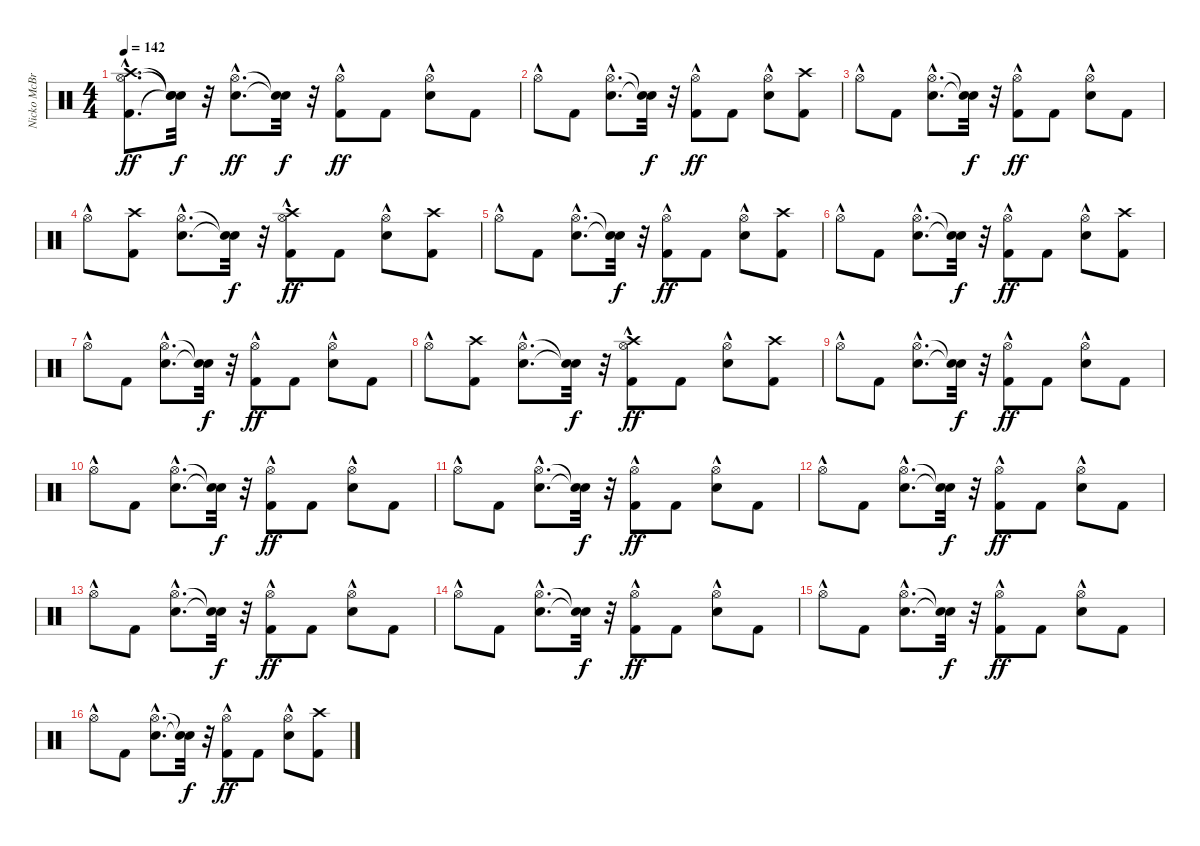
\track ("Nicko McBrain" "Nicko McBr") {instrument percussion}
\staff {score}
\articulation defaults
\ts (4 4)
\tempo 142
\clef neutral
\ks c
("Kick (hit) 2"{hac} "Hi-Hat (open)"{hac} "Crash high (hit)"{hac}).8{d dy ff} ("Snare (hit)"{t} "Snare (hit)"{t} "Snare (hit)"{t}).32{dy f} r.32 ("Snare (hit) 2"{hac} "Hi-Hat (open)"{hac}).8{d dy ff} ("Snare (hit)"{t} "Snare (hit)"{t}).32{dy f} r.32 ("Kick (hit) 2" "Hi-Hat (open)"{hac}).8{dy ff} "Kick (hit) 2".8 ("Snare (hit) 2" "Hi-Hat (open)"{hac}).8 "Kick (hit) 2".8 |
"Hi-Hat (open)"{hac}.8 "Kick (hit) 2".8 ("Snare (hit) 2"{hac} "Hi-Hat (open)"{hac}).8{d} ("Snare (hit)"{t} "Snare (hit)"{t}).32{dy f} r.32 ("Kick (hit) 2" "Hi-Hat (open)"{hac}).8{dy ff} "Kick (hit) 2".8 ("Snare (hit) 2" "Hi-Hat (open)"{hac}).8 ("Kick (hit) 2" "Crash high (hit)").8 |
"Hi-Hat (open)"{hac}.8 "Kick (hit) 2".8 ("Snare (hit) 2"{hac} "Hi-Hat (open)"{hac}).8{d} ("Snare (hit)"{t} "Snare (hit)"{t}).32{dy f} r.32 ("Kick (hit) 2" "Hi-Hat (open)"{hac}).8{dy ff} "Kick (hit) 2".8 ("Snare (hit) 2" "Hi-Hat (open)"{hac}).8 "Kick (hit) 2".8 |
"Hi-Hat (open)"{hac}.8 ("Kick (hit) 2" "Crash high (hit)").8 ("Snare (hit) 2"{hac} "Hi-Hat (open)"{hac}).8{d} ("Snare (hit)"{t} "Snare (hit)"{t}).32{dy f} r.32 ("Kick (hit) 2" "Hi-Hat (open)"{hac} "Crash high (hit)"{hac}).8{dy ff} "Kick (hit) 2".8 ("Snare (hit) 2" "Hi-Hat (open)"{hac}).8 ("Kick (hit) 2" "Crash high (hit)").8 |
"Hi-Hat (open)"{hac}.8 "Kick (hit) 2".8 ("Snare (hit) 2"{hac} "Hi-Hat (open)"{hac}).8{d} ("Snare (hit)"{t} "Snare (hit)"{t}).32{dy f} r.32 ("Kick (hit) 2" "Hi-Hat (open)"{hac}).8{dy ff} "Kick (hit) 2".8 ("Snare (hit) 2" "Hi-Hat (open)"{hac}).8 ("Kick (hit) 2" "Crash high (hit)").8 |
"Hi-Hat (open)"{hac}.8 "Kick (hit) 2".8 ("Snare (hit) 2"{hac} "Hi-Hat (open)"{hac}).8{d} ("Snare (hit)"{t} "Snare (hit)"{t}).32{dy f} r.32 ("Kick (hit) 2" "Hi-Hat (open)"{hac}).8{dy ff} "Kick (hit) 2".8 ("Snare (hit) 2" "Hi-Hat (open)"{hac}).8 ("Kick (hit) 2" "Crash high (hit)").8 |
"Hi-Hat (open)"{hac}.8 "Kick (hit) 2".8 ("Snare (hit) 2"{hac} "Hi-Hat (open)"{hac}).8{d} ("Snare (hit)"{t} "Snare (hit)"{t}).32{dy f} r.32 ("Kick (hit) 2" "Hi-Hat (open)"{hac}).8{dy ff} "Kick (hit) 2".8 ("Snare (hit) 2" "Hi-Hat (open)"{hac}).8 "Kick (hit) 2".8 |
"Hi-Hat (open)"{hac}.8 ("Kick (hit) 2" "Crash high (hit)").8 ("Snare (hit) 2"{hac} "Hi-Hat (open)"{hac}).8{d} ("Snare (hit)"{t} "Snare (hit)"{t}).32{dy f} r.32 ("Kick (hit) 2" "Hi-Hat (open)"{hac} "Crash high (hit)"{hac}).8{dy ff} "Kick (hit) 2".8 ("Snare (hit) 2" "Hi-Hat (open)"{hac}).8 ("Kick (hit) 2" "Crash high (hit)").8 |
"Hi-Hat (open)"{hac}.8 "Kick (hit) 2".8 ("Snare (hit) 2"{hac} "Hi-Hat (open)"{hac}).8{d} ("Snare (hit)"{t} "Snare (hit)"{t}).32{dy f} r.32 ("Kick (hit) 2" "Hi-Hat (open)"{hac}).8{dy ff} "Kick (hit) 2".8 ("Snare (hit) 2" "Hi-Hat (open)"{hac}).8 "Kick (hit) 2".8 |
"Hi-Hat (open)"{hac}.8 "Kick (hit) 2".8 ("Snare (hit) 2"{hac} "Hi-Hat (open)"{hac}).8{d} ("Snare (hit)"{t} "Snare (hit)"{t}).32{dy f} r.32 ("Kick (hit) 2" "Hi-Hat (open)"{hac}).8{dy ff} "Kick (hit) 2".8 ("Snare (hit) 2" "Hi-Hat (open)"{hac}).8 "Kick (hit) 2".8 |
"Hi-Hat (open)"{hac}.8 "Kick (hit) 2".8 ("Snare (hit) 2"{hac} "Hi-Hat (open)"{hac}).8{d} ("Snare (hit)"{t} "Snare (hit)"{t}).32{dy f} r.32 ("Kick (hit) 2" "Hi-Hat (open)"{hac}).8{dy ff} "Kick (hit) 2".8 ("Snare (hit) 2" "Hi-Hat (open)"{hac}).8 "Kick (hit) 2".8 |
"Hi-Hat (open)"{hac}.8 "Kick (hit) 2".8 ("Snare (hit) 2"{hac} "Hi-Hat (open)"{hac}).8{d} ("Snare (hit)"{t} "Snare (hit)"{t}).32{dy f} r.32 ("Kick (hit) 2" "Hi-Hat (open)"{hac}).8{dy ff} "Kick (hit) 2".8 ("Snare (hit) 2" "Hi-Hat (open)"{hac}).8 "Kick (hit) 2".8 |
"Hi-Hat (open)"{hac}.8 "Kick (hit) 2".8 ("Snare (hit) 2"{hac} "Hi-Hat (open)"{hac}).8{d} ("Snare (hit)"{t} "Snare (hit)"{t}).32{dy f} r.32 ("Kick (hit) 2" "Hi-Hat (open)"{hac}).8{dy ff} "Kick (hit) 2".8 ("Snare (hit) 2" "Hi-Hat (open)"{hac}).8 "Kick (hit) 2".8 |
"Hi-Hat (open)"{hac}.8 "Kick (hit) 2".8 ("Snare (hit) 2"{hac} "Hi-Hat (open)"{hac}).8{d} ("Snare (hit)"{t} "Snare (hit)"{t}).32{dy f} r.32 ("Kick (hit) 2" "Hi-Hat (open)"{hac}).8{dy ff} "Kick (hit) 2".8 ("Snare (hit) 2" "Hi-Hat (open)"{hac}).8 "Kick (hit) 2".8 |
"Hi-Hat (open)"{hac}.8 "Kick (hit) 2".8 ("Snare (hit) 2"{hac} "Hi-Hat (open)"{hac}).8{d} ("Snare (hit)"{t} "Snare (hit)"{t}).32{dy f} r.32 ("Kick (hit) 2" "Hi-Hat (open)"{hac}).8{dy ff} "Kick (hit) 2".8 ("Snare (hit) 2" "Hi-Hat (open)"{hac}).8 "Kick (hit) 2".8 |
"Hi-Hat (open)"{hac}.8 "Kick (hit) 2".8 ("Snare (hit) 2"{hac} "Hi-Hat (open)"{hac}).8{d} ("Snare (hit)"{t} "Snare (hit)"{t}).32{dy f} r.32 ("Kick (hit) 2" "Hi-Hat (open)"{hac}).8{dy ff} "Kick (hit) 2".8 ("Snare (hit) 2" "Hi-Hat (open)"{hac}).8 ("Kick (hit) 2" "Crash high (hit)").8
